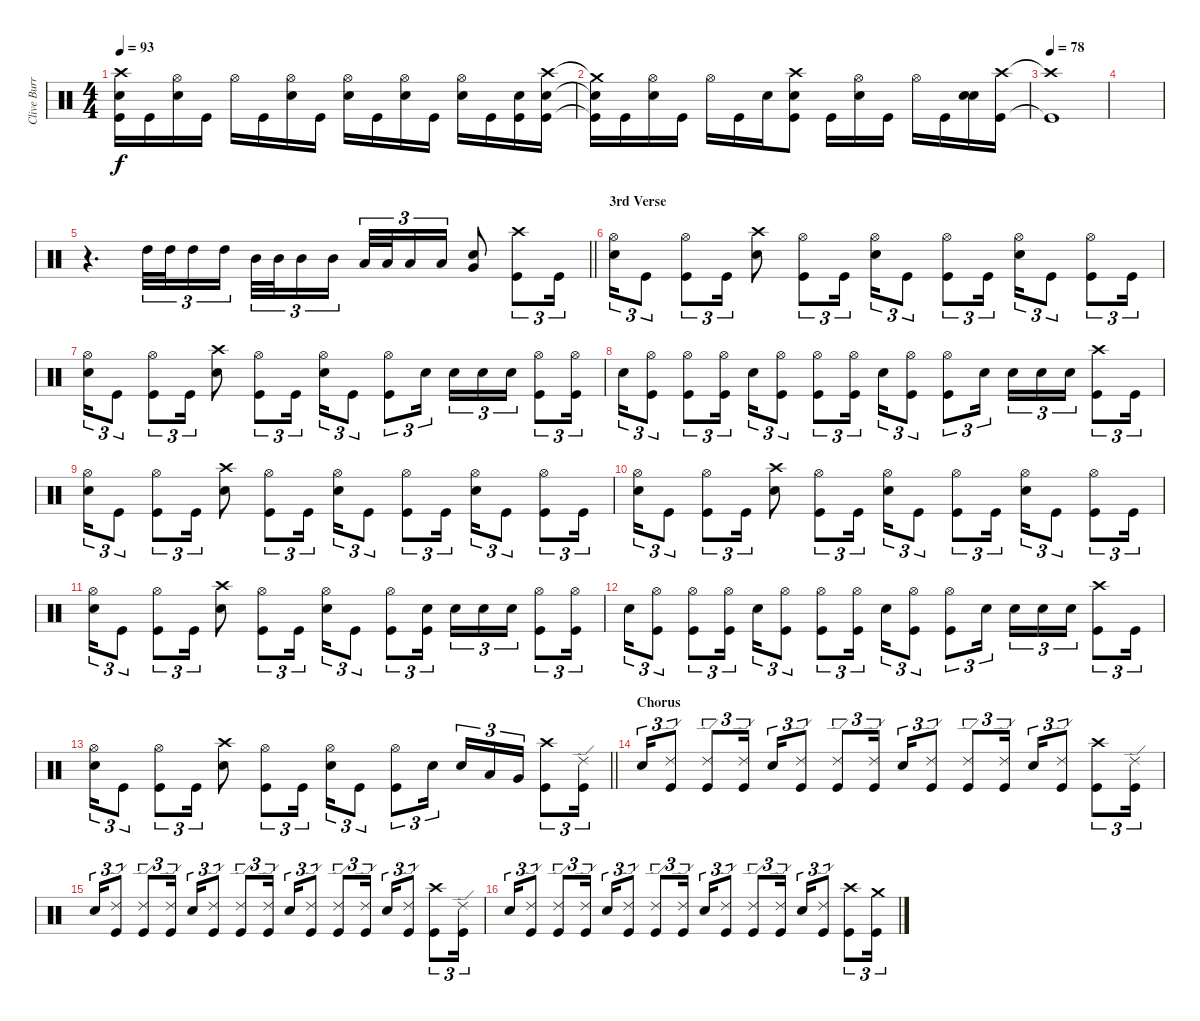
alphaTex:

\track ("Clive Burr" "Clive Burr") {instrument percussion}
\staff {score}
\articulation defaults
\ts (4 4)
\tempo 93
\clef neutral
\ks c
("Crash high (hit)"{t} "Electric Snare (hit)"{t} "Kick (hit)"{t}).16{dy f} "Kick (hit)".16 ("Electric Snare (hit)" "Hi-Hat (open)").16 "Kick (hit)".16 "Hi-Hat (open)".16 "Kick (hit)".16 ("Electric Snare (hit)" "Hi-Hat (open)").16 "Kick (hit)".16 ("Electric Snare (hit)" "Hi-Hat (open)").16 "Kick (hit)".16 ("Electric Snare (hit)" "Hi-Hat (open)").16 "Kick (hit)".16 ("Electric Snare (hit)" "Hi-Hat (open)").16 "Kick (hit)".16 ("Electric Snare (hit)" "Kick (hit)").16 ("Crash high (hit)" "Electric Snare (hit)" "Kick (hit)").16 |
("Crash medium (hit)"{t} "Electric Snare (hit)"{t} "Kick (hit)"{t}).16 "Kick (hit)".16 ("Hi-Hat (open)" "Electric Snare (hit)").16 "Kick (hit)".16 "Hi-Hat (open)".16 "Kick (hit)".16 "Electric Snare (hit)".16 ("Crash high (hit)" "Electric Snare (hit)" "Kick (hit)").8 "Kick (hit)".16 ("Hi-Hat (open)" "Electric Snare (hit)").16 "Kick (hit)".16 "Hi-Hat (open)".16 "Kick (hit)".16 ("Electric Snare (hit)" "Electric Snare (hit)").16 ("Crash high (hit)" "Kick (hit)").16 |
\tempo 78
("Crash high (hit)"{t} "Kick (hit)"{t}).1 |
|
\barLineRight lightlight
r.4{d} "High Tom (hit)".32{tu (3 2)} "High Tom (hit)".32{tu (3 2)} "High Tom (hit)".16{tu (3 2)} "High Tom (hit)".16{tu (3 2)} "Mid Tom (hit)".32{tu (3 2)} "Mid Tom (hit)".32{tu (3 2)} "Mid Tom (hit)".16{tu (3 2)} "Mid Tom (hit)".16{tu (3 2) beam splitsecondary} "Low Tom (hit)".32{tu (3 2)} "Low Tom (hit)".32{tu (3 2)} "Low Tom (hit)".16{tu (3 2)} "Low Tom (hit)".16{tu (3 2)} ("Electric Snare (hit)" "Very Low Tom (hit)").8 ("Crash high (hit)" "Kick (hit)").8{tu (3 2)} "Kick (hit)".16{tu (3 2)} |
\section ("" "3rd Verse")
("Hi-Hat (open)" "Electric Snare (hit)").16{tu (3 2)} "Kick (hit)".8{tu (3 2)} ("Hi-Hat (open)" "Kick (hit)").8{tu (3 2)} "Kick (hit)".16{tu (3 2)} ("Crash high (hit)" "Electric Snare (hit)").8 ("Hi-Hat (open)" "Kick (hit)").8{tu (3 2)} "Kick (hit)".16{tu (3 2)} ("Hi-Hat (open)" "Electric Snare (hit)").16{tu (3 2)} "Kick (hit)".8{tu (3 2)} ("Hi-Hat (open)" "Kick (hit)").8{tu (3 2)} "Kick (hit)".16{tu (3 2)} ("Hi-Hat (open)" "Electric Snare (hit)").16{tu (3 2)} "Kick (hit)".8{tu (3 2)} ("Hi-Hat (open)" "Kick (hit)").8{tu (3 2)} "Kick (hit)".16{tu (3 2)} |
("Hi-Hat (open)" "Electric Snare (hit)").16{tu (3 2)} "Kick (hit)".8{tu (3 2)} ("Hi-Hat (open)" "Kick (hit)").8{tu (3 2)} "Kick (hit)".16{tu (3 2)} ("Crash high (hit)" "Electric Snare (hit)").8 ("Hi-Hat (open)" "Kick (hit)").8{tu (3 2)} "Kick (hit)".16{tu (3 2)} ("Hi-Hat (open)" "Electric Snare (hit)").16{tu (3 2)} "Kick (hit)".8{tu (3 2)} ("Hi-Hat (open)" "Kick (hit)").8{tu (3 2)} "Electric Snare (hit)".16{tu (3 2)} "Electric Snare (hit)".16{tu (3 2)} "Electric Snare (hit)".16{tu (3 2)} "Electric Snare (hit)".16{tu (3 2)} ("Hi-Hat (open)" "Kick (hit)").8{tu (3 2)} ("Hi-Hat (open)" "Kick (hit)").16{tu (3 2)} |
"Electric Snare (hit)".16{tu (3 2)} ("Hi-Hat (open)" "Kick (hit)").8{tu (3 2)} ("Hi-Hat (open)" "Kick (hit)").8{tu (3 2)} ("Hi-Hat (open)" "Kick (hit)").16{tu (3 2)} "Electric Snare (hit)".16{tu (3 2)} ("Hi-Hat (open)" "Kick (hit)").8{tu (3 2)} ("Hi-Hat (open)" "Kick (hit)").8{tu (3 2)} ("Hi-Hat (open)" "Kick (hit)").16{tu (3 2)} "Electric Snare (hit)".16{tu (3 2)} ("Hi-Hat (open)" "Kick (hit)").8{tu (3 2)} ("Hi-Hat (open)" "Kick (hit)").8{tu (3 2)} "Electric Snare (hit)".16{tu (3 2)} "Electric Snare (hit)".16{tu (3 2)} "Electric Snare (hit)".16{tu (3 2)} "Electric Snare (hit)".16{tu (3 2)} ("Crash high (hit)" "Kick (hit)").8{tu (3 2)} "Kick (hit)".16{tu (3 2)} |
("Hi-Hat (open)" "Electric Snare (hit)").16{tu (3 2)} "Kick (hit)".8{tu (3 2)} ("Hi-Hat (open)" "Kick (hit)").8{tu (3 2)} "Kick (hit)".16{tu (3 2)} ("Crash high (hit)" "Electric Snare (hit)").8 ("Hi-Hat (open)" "Kick (hit)").8{tu (3 2)} "Kick (hit)".16{tu (3 2)} ("Hi-Hat (open)" "Electric Snare (hit)").16{tu (3 2)} "Kick (hit)".8{tu (3 2)} ("Hi-Hat (open)" "Kick (hit)").8{tu (3 2)} "Kick (hit)".16{tu (3 2)} ("Hi-Hat (open)" "Electric Snare (hit)").16{tu (3 2)} "Kick (hit)".8{tu (3 2)} ("Hi-Hat (open)" "Kick (hit)").8{tu (3 2)} "Kick (hit)".16{tu (3 2)} |
("Hi-Hat (open)" "Electric Snare (hit)").16{tu (3 2)} "Kick (hit)".8{tu (3 2)} ("Hi-Hat (open)" "Kick (hit)").8{tu (3 2)} "Kick (hit)".16{tu (3 2)} ("Crash high (hit)" "Electric Snare (hit)").8 ("Hi-Hat (open)" "Kick (hit)").8{tu (3 2)} "Kick (hit)".16{tu (3 2)} ("Hi-Hat (open)" "Electric Snare (hit)").16{tu (3 2)} "Kick (hit)".8{tu (3 2)} ("Hi-Hat (open)" "Kick (hit)").8{tu (3 2)} "Kick (hit)".16{tu (3 2)} ("Hi-Hat (open)" "Electric Snare (hit)").16{tu (3 2)} "Kick (hit)".8{tu (3 2)} ("Hi-Hat (open)" "Kick (hit)").8{tu (3 2)} "Kick (hit)".16{tu (3 2)} |
("Hi-Hat (open)" "Electric Snare (hit)").16{tu (3 2)} "Kick (hit)".8{tu (3 2)} ("Hi-Hat (open)" "Kick (hit)").8{tu (3 2)} "Kick (hit)".16{tu (3 2)} ("Crash high (hit)" "Electric Snare (hit)").8 ("Hi-Hat (open)" "Kick (hit)").8{tu (3 2)} "Kick (hit)".16{tu (3 2)} ("Hi-Hat (open)" "Electric Snare (hit)").16{tu (3 2)} "Kick (hit)".8{tu (3 2)} ("Hi-Hat (open)" "Kick (hit)").8{tu (3 2)} ("Electric Snare (hit)" "Kick (hit)").16{tu (3 2)} "Electric Snare (hit)".16{tu (3 2)} "Electric Snare (hit)".16{tu (3 2)} "Electric Snare (hit)".16{tu (3 2)} ("Hi-Hat (open)" "Kick (hit)").8{tu (3 2)} ("Hi-Hat (open)" "Kick (hit)").16{tu (3 2)} |
"Electric Snare (hit)".16{tu (3 2)} ("Hi-Hat (open)" "Kick (hit)").8{tu (3 2)} ("Hi-Hat (open)" "Kick (hit)").8{tu (3 2)} ("Hi-Hat (open)" "Kick (hit)").16{tu (3 2)} "Electric Snare (hit)".16{tu (3 2)} ("Hi-Hat (open)" "Kick (hit)").8{tu (3 2)} ("Hi-Hat (open)" "Kick (hit)").8{tu (3 2)} ("Hi-Hat (open)" "Kick (hit)").16{tu (3 2)} "Electric Snare (hit)".16{tu (3 2)} ("Hi-Hat (open)" "Kick (hit)").8{tu (3 2)} ("Hi-Hat (open)" "Kick (hit)").8{tu (3 2)} "Electric Snare (hit)".16{tu (3 2)} "Electric Snare (hit)".16{tu (3 2)} "Electric Snare (hit)".16{tu (3 2)} "Electric Snare (hit)".16{tu (3 2)} ("Crash high (hit)" "Kick (hit)").8{tu (3 2)} "Kick (hit)".16{tu (3 2)} |
\barLineRight lightlight
("Hi-Hat (open)" "Electric Snare (hit)").16{tu (3 2)} "Kick (hit)".8{tu (3 2)} ("Hi-Hat (open)" "Kick (hit)").8{tu (3 2)} "Kick (hit)".16{tu (3 2)} ("Crash high (hit)" "Electric Snare (hit)").8 ("Hi-Hat (open)" "Kick (hit)").8{tu (3 2)} "Kick (hit)".16{tu (3 2)} ("Hi-Hat (open)" "Electric Snare (hit)").16{tu (3 2)} "Kick (hit)".8{tu (3 2)} ("Hi-Hat (open)" "Kick (hit)").8{tu (3 2)} "Electric Snare (hit)".16{tu (3 2)} "Electric Snare (hit)".16{tu (3 2)} "Low Tom (hit)".16{tu (3 2)} "Very Low Tom (hit)".16{tu (3 2)} ("Crash high (hit)" "Kick (hit)").8{tu (3 2)} ("Ride (edge) 2" "Kick (hit)").16{tu (3 2)} |
\section ("" "Chorus")
"Electric Snare (hit)".16{tu (3 2)} ("Ride (edge) 2" "Kick (hit)").8{tu (3 2)} ("Ride (edge) 2" "Kick (hit)").8{tu (3 2)} ("Ride (edge) 2" "Kick (hit)").16{tu (3 2)} "Electric Snare (hit)".16{tu (3 2)} ("Ride (edge) 2" "Kick (hit)").8{tu (3 2)} ("Ride (edge) 2" "Kick (hit)").8{tu (3 2)} ("Ride (edge) 2" "Kick (hit)").16{tu (3 2)} "Electric Snare (hit)".16{tu (3 2)} ("Ride (edge) 2" "Kick (hit)").8{tu (3 2)} ("Ride (edge) 2" "Kick (hit)").8{tu (3 2)} ("Ride (edge) 2" "Kick (hit)").16{tu (3 2)} "Electric Snare (hit)".16{tu (3 2)} ("Ride (edge) 2" "Kick (hit)").8{tu (3 2)} ("Crash high (hit)" "Kick (hit)").8{tu (3 2)} ("Ride (edge) 2" "Kick (hit)").16{tu (3 2)} |
"Electric Snare (hit)".16{tu (3 2)} ("Ride (edge) 2" "Kick (hit)").8{tu (3 2)} ("Ride (edge) 2" "Kick (hit)").8{tu (3 2)} ("Ride (edge) 2" "Kick (hit)").16{tu (3 2)} "Electric Snare (hit)".16{tu (3 2)} ("Ride (edge) 2" "Kick (hit)").8{tu (3 2)} ("Ride (edge) 2" "Kick (hit)").8{tu (3 2)} ("Ride (edge) 2" "Kick (hit)").16{tu (3 2)} "Electric Snare (hit)".16{tu (3 2)} ("Ride (edge) 2" "Kick (hit)").8{tu (3 2)} ("Ride (edge) 2" "Kick (hit)").8{tu (3 2)} ("Ride (edge) 2" "Kick (hit)").16{tu (3 2)} "Electric Snare (hit)".16{tu (3 2)} ("Ride (edge) 2" "Kick (hit)").8{tu (3 2)} ("Crash high (hit)" "Kick (hit)").8{tu (3 2)} ("Ride (edge) 2" "Kick (hit)").16{tu (3 2)} |
"Electric Snare (hit)".16{tu (3 2)} ("Ride (edge) 2" "Kick (hit)").8{tu (3 2)} ("Ride (edge) 2" "Kick (hit)").8{tu (3 2)} ("Ride (edge) 2" "Kick (hit)").16{tu (3 2)} "Electric Snare (hit)".16{tu (3 2)} ("Ride (edge) 2" "Kick (hit)").8{tu (3 2)} ("Ride (edge) 2" "Kick (hit)").8{tu (3 2)} ("Ride (edge) 2" "Kick (hit)").16{tu (3 2)} "Electric Snare (hit)".16{tu (3 2)} ("Ride (edge) 2" "Kick (hit)").8{tu (3 2)} ("Ride (edge) 2" "Kick (hit)").8{tu (3 2)} ("Ride (edge) 2" "Kick (hit)").16{tu (3 2)} "Electric Snare (hit)".16{tu (3 2)} ("Ride (edge) 2" "Kick (hit)").8{tu (3 2)} ("Crash high (hit)" "Kick (hit)").8{tu (3 2)} ("Crash medium (hit)" "Kick (hit)").16{tu (3 2)}
